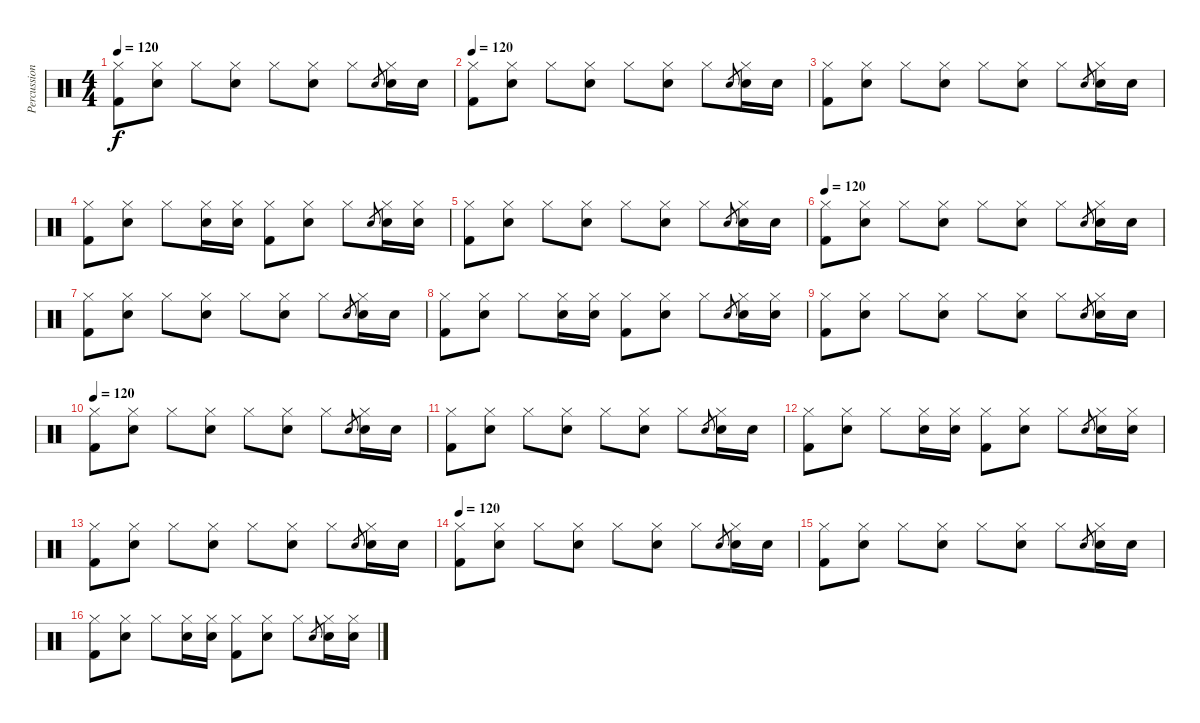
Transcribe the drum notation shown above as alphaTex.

\track ("Percussion" "Percussion") {instrument percussion}
\staff {score}
\articulation defaults
\ts (4 4)
\tempo 120
\clef neutral
\ks c
("Hi-Hat (closed)" "Kick (hit) 2").8{dy f} ("Hi-Hat (closed)" "Electric Snare (hit)").8 "Hi-Hat (closed)".8 ("Hi-Hat (closed)" "Electric Snare (hit)").8 "Hi-Hat (closed)".8 ("Hi-Hat (closed)" "Electric Snare (hit)").8 "Hi-Hat (closed)".8 "Electric Snare (hit)".8{gr} ("Hi-Hat (closed)" "Electric Snare (hit)").16 "Electric Snare (hit)".16 |
\tempo 120
("Hi-Hat (closed)" "Kick (hit) 2").8 ("Hi-Hat (closed)" "Electric Snare (hit)").8 "Hi-Hat (closed)".8 ("Hi-Hat (closed)" "Electric Snare (hit)").8 "Hi-Hat (closed)".8 ("Hi-Hat (closed)" "Electric Snare (hit)").8 "Hi-Hat (closed)".8 "Electric Snare (hit)".8{gr} ("Hi-Hat (closed)" "Electric Snare (hit)").16 "Electric Snare (hit)".16 |
("Hi-Hat (closed)" "Kick (hit) 2").8 ("Hi-Hat (closed)" "Electric Snare (hit)").8 "Hi-Hat (closed)".8 ("Hi-Hat (closed)" "Electric Snare (hit)").8 "Hi-Hat (closed)".8 ("Hi-Hat (closed)" "Electric Snare (hit)").8 "Hi-Hat (closed)".8 "Electric Snare (hit)".8{gr} ("Hi-Hat (closed)" "Electric Snare (hit)").16 "Electric Snare (hit)".16 |
("Hi-Hat (closed)" "Kick (hit) 2").8 ("Hi-Hat (closed)" "Electric Snare (hit)").8 "Hi-Hat (closed)".8 ("Hi-Hat (closed)" "Electric Snare (hit)").16 ("Hi-Hat (closed)" "Electric Snare (hit)").16 ("Hi-Hat (closed)" "Kick (hit) 2").8 ("Hi-Hat (closed)" "Electric Snare (hit)").8 "Hi-Hat (closed)".8 "Electric Snare (hit)".8{gr} ("Hi-Hat (closed)" "Electric Snare (hit)").16 ("Hi-Hat (closed)" "Electric Snare (hit)").16 |
("Hi-Hat (closed)" "Kick (hit) 2").8 ("Hi-Hat (closed)" "Electric Snare (hit)").8 "Hi-Hat (closed)".8 ("Hi-Hat (closed)" "Electric Snare (hit)").8 "Hi-Hat (closed)".8 ("Hi-Hat (closed)" "Electric Snare (hit)").8 "Hi-Hat (closed)".8 "Electric Snare (hit)".8{gr} ("Hi-Hat (closed)" "Electric Snare (hit)").16 "Electric Snare (hit)".16 |
\tempo 120
("Hi-Hat (closed)" "Kick (hit) 2").8 ("Hi-Hat (closed)" "Electric Snare (hit)").8 "Hi-Hat (closed)".8 ("Hi-Hat (closed)" "Electric Snare (hit)").8 "Hi-Hat (closed)".8 ("Hi-Hat (closed)" "Electric Snare (hit)").8 "Hi-Hat (closed)".8 "Electric Snare (hit)".8{gr} ("Hi-Hat (closed)" "Electric Snare (hit)").16 "Electric Snare (hit)".16 |
("Hi-Hat (closed)" "Kick (hit) 2").8 ("Hi-Hat (closed)" "Electric Snare (hit)").8 "Hi-Hat (closed)".8 ("Hi-Hat (closed)" "Electric Snare (hit)").8 "Hi-Hat (closed)".8 ("Hi-Hat (closed)" "Electric Snare (hit)").8 "Hi-Hat (closed)".8 "Electric Snare (hit)".8{gr} ("Hi-Hat (closed)" "Electric Snare (hit)").16 "Electric Snare (hit)".16 |
("Hi-Hat (closed)" "Kick (hit) 2").8 ("Hi-Hat (closed)" "Electric Snare (hit)").8 "Hi-Hat (closed)".8 ("Hi-Hat (closed)" "Electric Snare (hit)").16 ("Hi-Hat (closed)" "Electric Snare (hit)").16 ("Hi-Hat (closed)" "Kick (hit) 2").8 ("Hi-Hat (closed)" "Electric Snare (hit)").8 "Hi-Hat (closed)".8 "Electric Snare (hit)".8{gr} ("Hi-Hat (closed)" "Electric Snare (hit)").16 ("Hi-Hat (closed)" "Electric Snare (hit)").16 |
("Hi-Hat (closed)" "Kick (hit) 2").8 ("Hi-Hat (closed)" "Electric Snare (hit)").8 "Hi-Hat (closed)".8 ("Hi-Hat (closed)" "Electric Snare (hit)").8 "Hi-Hat (closed)".8 ("Hi-Hat (closed)" "Electric Snare (hit)").8 "Hi-Hat (closed)".8 "Electric Snare (hit)".8{gr} ("Hi-Hat (closed)" "Electric Snare (hit)").16 "Electric Snare (hit)".16 |
\tempo 120
("Hi-Hat (closed)" "Kick (hit) 2").8 ("Hi-Hat (closed)" "Electric Snare (hit)").8 "Hi-Hat (closed)".8 ("Hi-Hat (closed)" "Electric Snare (hit)").8 "Hi-Hat (closed)".8 ("Hi-Hat (closed)" "Electric Snare (hit)").8 "Hi-Hat (closed)".8 "Electric Snare (hit)".8{gr} ("Hi-Hat (closed)" "Electric Snare (hit)").16 "Electric Snare (hit)".16 |
("Hi-Hat (closed)" "Kick (hit) 2").8 ("Hi-Hat (closed)" "Electric Snare (hit)").8 "Hi-Hat (closed)".8 ("Hi-Hat (closed)" "Electric Snare (hit)").8 "Hi-Hat (closed)".8 ("Hi-Hat (closed)" "Electric Snare (hit)").8 "Hi-Hat (closed)".8 "Electric Snare (hit)".8{gr} ("Hi-Hat (closed)" "Electric Snare (hit)").16 "Electric Snare (hit)".16 |
("Hi-Hat (closed)" "Kick (hit) 2").8 ("Hi-Hat (closed)" "Electric Snare (hit)").8 "Hi-Hat (closed)".8 ("Hi-Hat (closed)" "Electric Snare (hit)").16 ("Hi-Hat (closed)" "Electric Snare (hit)").16 ("Hi-Hat (closed)" "Kick (hit) 2").8 ("Hi-Hat (closed)" "Electric Snare (hit)").8 "Hi-Hat (closed)".8 "Electric Snare (hit)".8{gr} ("Hi-Hat (closed)" "Electric Snare (hit)").16 ("Hi-Hat (closed)" "Electric Snare (hit)").16 |
("Hi-Hat (closed)" "Kick (hit) 2").8 ("Hi-Hat (closed)" "Electric Snare (hit)").8 "Hi-Hat (closed)".8 ("Hi-Hat (closed)" "Electric Snare (hit)").8 "Hi-Hat (closed)".8 ("Hi-Hat (closed)" "Electric Snare (hit)").8 "Hi-Hat (closed)".8 "Electric Snare (hit)".8{gr} ("Hi-Hat (closed)" "Electric Snare (hit)").16 "Electric Snare (hit)".16 |
\tempo 120
("Hi-Hat (closed)" "Kick (hit) 2").8 ("Hi-Hat (closed)" "Electric Snare (hit)").8 "Hi-Hat (closed)".8 ("Hi-Hat (closed)" "Electric Snare (hit)").8 "Hi-Hat (closed)".8 ("Hi-Hat (closed)" "Electric Snare (hit)").8 "Hi-Hat (closed)".8 "Electric Snare (hit)".8{gr} ("Hi-Hat (closed)" "Electric Snare (hit)").16 "Electric Snare (hit)".16 |
("Hi-Hat (closed)" "Kick (hit) 2").8 ("Hi-Hat (closed)" "Electric Snare (hit)").8 "Hi-Hat (closed)".8 ("Hi-Hat (closed)" "Electric Snare (hit)").8 "Hi-Hat (closed)".8 ("Hi-Hat (closed)" "Electric Snare (hit)").8 "Hi-Hat (closed)".8 "Electric Snare (hit)".8{gr} ("Hi-Hat (closed)" "Electric Snare (hit)").16 "Electric Snare (hit)".16 |
("Hi-Hat (closed)" "Kick (hit) 2").8 ("Hi-Hat (closed)" "Electric Snare (hit)").8 "Hi-Hat (closed)".8 ("Hi-Hat (closed)" "Electric Snare (hit)").16 ("Hi-Hat (closed)" "Electric Snare (hit)").16 ("Hi-Hat (closed)" "Kick (hit) 2").8 ("Hi-Hat (closed)" "Electric Snare (hit)").8 "Hi-Hat (closed)".8 "Electric Snare (hit)".8{gr} ("Hi-Hat (closed)" "Electric Snare (hit)").16 ("Hi-Hat (closed)" "Electric Snare (hit)").16
